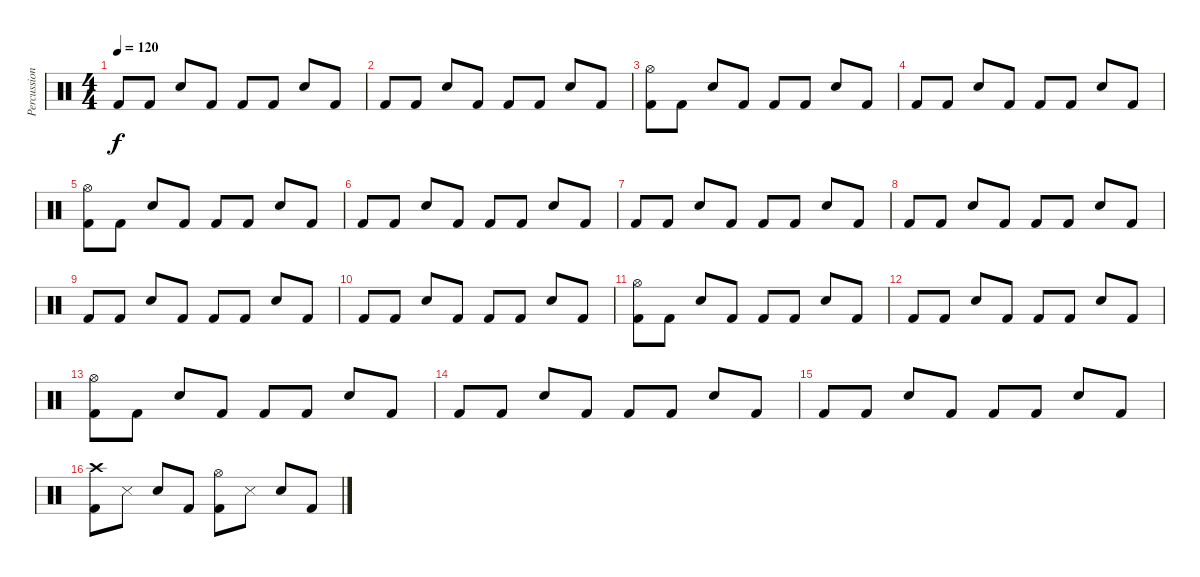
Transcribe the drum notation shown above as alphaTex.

\track ("Percussion" "Percussion") {instrument percussion}
\staff {score}
\articulation defaults
\ts (4 4)
\tempo 120
\clef neutral
\ks c "Kick (hit) 2".8{dy f} "Kick (hit) 2".8 "Electric Snare (hit)".8 "Kick (hit) 2".8 "Kick (hit) 2".8 "Kick (hit) 2".8 "Electric Snare (hit)".8 "Kick (hit) 2".8
|
"Kick (hit) 2".8 "Kick (hit) 2".8 "Electric Snare (hit)".8 "Kick (hit) 2".8 "Kick (hit) 2".8 "Kick (hit) 2".8 "Electric Snare (hit)".8 "Kick (hit) 2".8 |
("Kick (hit) 2" "Hi-Hat (open)").8 "Kick (hit) 2".8 "Electric Snare (hit)".8 "Kick (hit) 2".8 "Kick (hit) 2".8 "Kick (hit) 2".8 "Electric Snare (hit)".8 "Kick (hit) 2".8 |
"Kick (hit) 2".8 "Kick (hit) 2".8 "Electric Snare (hit)".8 "Kick (hit) 2".8 "Kick (hit) 2".8 "Kick (hit) 2".8 "Electric Snare (hit)".8 "Kick (hit) 2".8 |
("Kick (hit) 2" "Hi-Hat (open)").8 "Kick (hit) 2".8 "Electric Snare (hit)".8 "Kick (hit) 2".8 "Kick (hit) 2".8 "Kick (hit) 2".8 "Electric Snare (hit)".8 "Kick (hit) 2".8 |
"Kick (hit) 2".8 "Kick (hit) 2".8 "Electric Snare (hit)".8 "Kick (hit) 2".8 "Kick (hit) 2".8 "Kick (hit) 2".8 "Electric Snare (hit)".8 "Kick (hit) 2".8 |
"Kick (hit) 2".8 "Kick (hit) 2".8 "Electric Snare (hit)".8 "Kick (hit) 2".8 "Kick (hit) 2".8 "Kick (hit) 2".8 "Electric Snare (hit)".8 "Kick (hit) 2".8 |
"Kick (hit) 2".8 "Kick (hit) 2".8 "Electric Snare (hit)".8 "Kick (hit) 2".8 "Kick (hit) 2".8 "Kick (hit) 2".8 "Electric Snare (hit)".8 "Kick (hit) 2".8 |
"Kick (hit) 2".8 "Kick (hit) 2".8 "Electric Snare (hit)".8 "Kick (hit) 2".8 "Kick (hit) 2".8 "Kick (hit) 2".8 "Electric Snare (hit)".8 "Kick (hit) 2".8 |
"Kick (hit) 2".8 "Kick (hit) 2".8 "Electric Snare (hit)".8 "Kick (hit) 2".8 "Kick (hit) 2".8 "Kick (hit) 2".8 "Electric Snare (hit)".8 "Kick (hit) 2".8 |
("Kick (hit) 2" "Hi-Hat (open)").8 "Kick (hit) 2".8 "Electric Snare (hit)".8 "Kick (hit) 2".8 "Kick (hit) 2".8 "Kick (hit) 2".8 "Electric Snare (hit)".8 "Kick (hit) 2".8 |
"Kick (hit) 2".8 "Kick (hit) 2".8 "Electric Snare (hit)".8 "Kick (hit) 2".8 "Kick (hit) 2".8 "Kick (hit) 2".8 "Electric Snare (hit)".8 "Kick (hit) 2".8 |
("Kick (hit) 2" "Hi-Hat (open)").8 "Kick (hit) 2".8 "Electric Snare (hit)".8 "Kick (hit) 2".8 "Kick (hit) 2".8 "Kick (hit) 2".8 "Electric Snare (hit)".8 "Kick (hit) 2".8 |
"Kick (hit) 2".8 "Kick (hit) 2".8 "Electric Snare (hit)".8 "Kick (hit) 2".8 "Kick (hit) 2".8 "Kick (hit) 2".8 "Electric Snare (hit)".8 "Kick (hit) 2".8 |
"Kick (hit) 2".8 "Kick (hit) 2".8 "Electric Snare (hit)".8 "Kick (hit) 2".8 "Kick (hit) 2".8 "Kick (hit) 2".8 "Electric Snare (hit)".8 "Kick (hit) 2".8 |
("Crash high (hit)" "Kick (hit) 2").8 "Snare (side stick) 3".8 "Electric Snare (hit)".8 "Kick (hit) 2".8 ("Hi-Hat (open)" "Kick (hit) 2").8 "Snare (side stick) 3".8 "Electric Snare (hit)".8 "Kick (hit) 2".8
